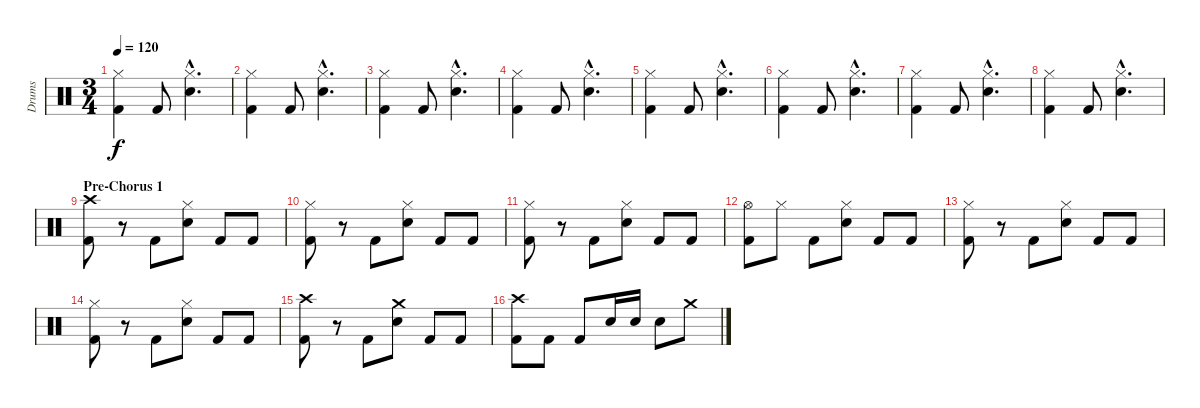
\track ("Drums" "Drums") {instrument percussion}
\staff {score}
\articulation defaults
\ts (3 4)
\tempo 120
\clef neutral
\ks c
("Hi-Hat (closed)" "Kick (hit) 2").4{dy f} "Kick (hit) 2".8 ("Hi-Hat (closed)"{hac} "Snare (hit) 2"{hac}).4{d} |
("Hi-Hat (closed)" "Kick (hit) 2").4 "Kick (hit) 2".8 ("Hi-Hat (closed)"{hac} "Snare (hit) 2"{hac}).4{d} |
("Hi-Hat (closed)" "Kick (hit) 2").4 "Kick (hit) 2".8 ("Hi-Hat (closed)"{hac} "Snare (hit) 2"{hac}).4{d} |
("Hi-Hat (closed)" "Kick (hit) 2").4 "Kick (hit) 2".8 ("Hi-Hat (closed)"{hac} "Snare (hit) 2"{hac}).4{d} |
("Hi-Hat (closed)" "Kick (hit) 2").4 "Kick (hit) 2".8 ("Hi-Hat (closed)"{hac} "Snare (hit) 2"{hac}).4{d} |
("Hi-Hat (closed)" "Kick (hit) 2").4 "Kick (hit) 2".8 ("Hi-Hat (closed)"{hac} "Snare (hit) 2"{hac}).4{d} |
("Hi-Hat (closed)" "Kick (hit) 2").4 "Kick (hit) 2".8 ("Hi-Hat (closed)"{hac} "Snare (hit) 2"{hac}).4{d} |
("Hi-Hat (closed)" "Kick (hit) 2").4 "Kick (hit) 2".8 ("Hi-Hat (closed)"{hac} "Snare (hit) 2"{hac}).4{d} |
\section ("" "Pre-Chorus 1")
("Crash high (hit)" "Kick (hit) 2").8 r.8 "Kick (hit) 2".8 ("Hi-Hat (closed)" "Snare (hit) 2").8 "Kick (hit) 2".8 "Kick (hit) 2".8 |
("Hi-Hat (closed)" "Kick (hit) 2").8 r.8 "Kick (hit) 2".8 ("Hi-Hat (closed)" "Snare (hit) 2").8 "Kick (hit) 2".8 "Kick (hit) 2".8 |
("Hi-Hat (closed)" "Kick (hit) 2").8 r.8 "Kick (hit) 2".8 ("Hi-Hat (closed)" "Snare (hit) 2").8 "Kick (hit) 2".8 "Kick (hit) 2".8 |
("Hi-Hat (open)" "Kick (hit) 2").8 "Hi-Hat (closed)".8 "Kick (hit) 2".8 ("Hi-Hat (closed)" "Snare (hit) 2").8 "Kick (hit) 2".8 "Kick (hit) 2".8 |
("Hi-Hat (closed)" "Kick (hit) 2").8 r.8 "Kick (hit) 2".8 ("Hi-Hat (closed)" "Snare (hit) 2").8 "Kick (hit) 2".8 "Kick (hit) 2".8 |
("Hi-Hat (closed)" "Kick (hit) 2").8 r.8 "Kick (hit) 2".8 ("Hi-Hat (closed)" "Snare (hit) 2").8 "Kick (hit) 2".8 "Kick (hit) 2".8 |
("Crash high (hit)" "Kick (hit) 2").8 r.8 "Kick (hit) 2".8 ("Crash medium (hit)" "Snare (hit) 2").8 "Kick (hit) 2".8 "Kick (hit) 2".8 |
("Crash high (hit)" "Kick (hit) 2").8 "Kick (hit) 2".8 "Kick (hit) 2".8 "Snare (hit) 2".16 "Snare (hit) 2".16 "Snare (hit) 2".8 "Crash medium (hit)".8
